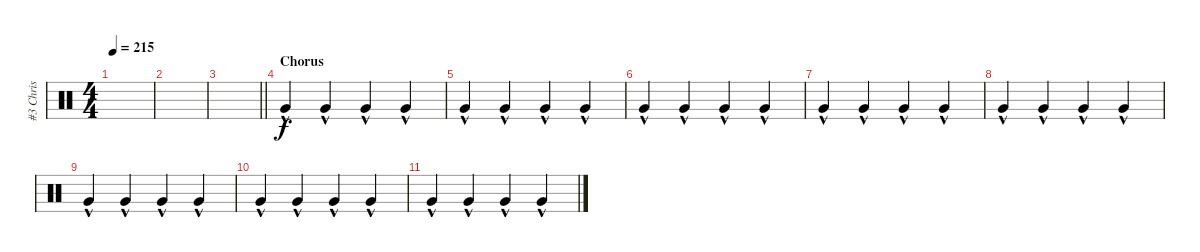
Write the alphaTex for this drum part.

\track ("#3 Chris" "#3 Chris") {instrument percussion}
\staff {score}
\articulation defaults
\ts (4 4)
\tempo 215
\clef neutral
\ks c
|
|
\barLineRight lightlight
|
\section ("" "Chorus")
"Very Low Tom (hit)"{hac}.4 "Very Low Tom (hit)"{hac}.4 "Very Low Tom (hit)"{hac}.4 "Very Low Tom (hit)"{hac}.4 |
"Very Low Tom (hit)"{hac}.4 "Very Low Tom (hit)"{hac}.4 "Very Low Tom (hit)"{hac}.4 "Very Low Tom (hit)"{hac}.4 |
"Very Low Tom (hit)"{hac}.4 "Very Low Tom (hit)"{hac}.4 "Very Low Tom (hit)"{hac}.4 "Very Low Tom (hit)"{hac}.4 |
"Very Low Tom (hit)"{hac}.4 "Very Low Tom (hit)"{hac}.4 "Very Low Tom (hit)"{hac}.4 "Very Low Tom (hit)"{hac}.4 |
"Very Low Tom (hit)"{hac}.4 "Very Low Tom (hit)"{hac}.4 "Very Low Tom (hit)"{hac}.4 "Very Low Tom (hit)"{hac}.4 |
"Very Low Tom (hit)"{hac}.4 "Very Low Tom (hit)"{hac}.4 "Very Low Tom (hit)"{hac}.4 "Very Low Tom (hit)"{hac}.4 |
"Very Low Tom (hit)"{hac}.4 "Very Low Tom (hit)"{hac}.4 "Very Low Tom (hit)"{hac}.4 "Very Low Tom (hit)"{hac}.4 |
"Very Low Tom (hit)"{hac}.4 "Very Low Tom (hit)"{hac}.4 "Very Low Tom (hit)"{hac}.4 "Very Low Tom (hit)"{hac}.4
